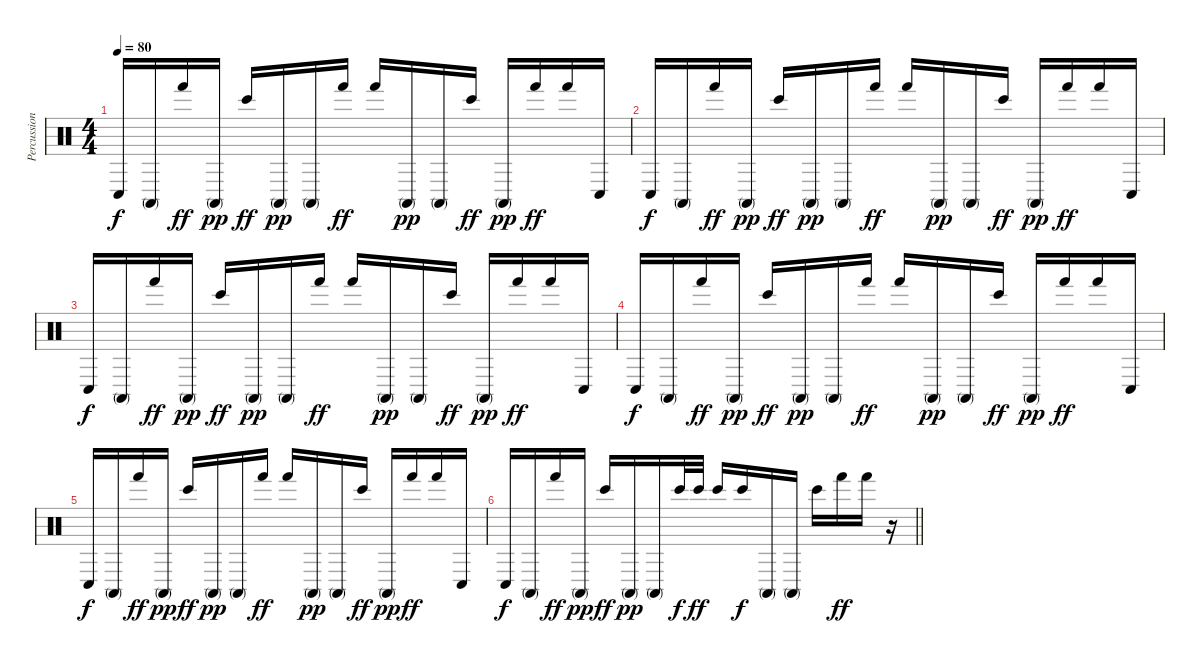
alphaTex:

\track ("Percussions" "Percussion") {instrument percussion}
\staff {score}
\articulation defaults
\ts (4 4)
\tempo 80
\clef neutral
\ks c "Conga low (hit)".16{dy f} "Conga high (mute)".16 "Hand (hit)".16{dy ff} "Conga high (mute)".16{dy pp} "Bongo High (hit)".16{dy ff} "Conga high (mute)".16{dy pp} "Conga high (mute)".16 "Hand (hit)".16{dy ff} "Hand (hit)".16 "Conga high (mute)".16{dy pp} "Conga high (mute)".16 "Bongo High (hit)".16{dy ff} "Conga high (mute)".16{dy pp} "Hand (hit)".16{dy ff} "Hand (hit)".16 "Conga low (hit)".16
|
"Conga low (hit)".16{dy f} "Conga high (mute)".16 "Hand (hit)".16{dy ff} "Conga high (mute)".16{dy pp} "Bongo High (hit)".16{dy ff} "Conga high (mute)".16{dy pp} "Conga high (mute)".16 "Hand (hit)".16{dy ff} "Hand (hit)".16 "Conga high (mute)".16{dy pp} "Conga high (mute)".16 "Bongo High (hit)".16{dy ff} "Conga high (mute)".16{dy pp} "Hand (hit)".16{dy ff} "Hand (hit)".16 "Conga low (hit)".16 |
"Conga low (hit)".16{dy f} "Conga high (mute)".16 "Hand (hit)".16{dy ff} "Conga high (mute)".16{dy pp} "Bongo High (hit)".16{dy ff} "Conga high (mute)".16{dy pp} "Conga high (mute)".16 "Hand (hit)".16{dy ff} "Hand (hit)".16 "Conga high (mute)".16{dy pp} "Conga high (mute)".16 "Bongo High (hit)".16{dy ff} "Conga high (mute)".16{dy pp} "Hand (hit)".16{dy ff} "Hand (hit)".16 "Conga low (hit)".16 |
"Conga low (hit)".16{dy f} "Conga high (mute)".16 "Hand (hit)".16{dy ff} "Conga high (mute)".16{dy pp} "Bongo High (hit)".16{dy ff} "Conga high (mute)".16{dy pp} "Conga high (mute)".16 "Hand (hit)".16{dy ff} "Hand (hit)".16 "Conga high (mute)".16{dy pp} "Conga high (mute)".16 "Bongo High (hit)".16{dy ff} "Conga high (mute)".16{dy pp} "Hand (hit)".16{dy ff} "Hand (hit)".16 "Conga low (hit)".16 |
"Conga low (hit)".16{dy f} "Conga high (mute)".16 "Hand (hit)".16{dy ff} "Conga high (mute)".16{dy pp} "Bongo High (hit)".16{dy ff} "Conga high (mute)".16{dy pp} "Conga high (mute)".16 "Hand (hit)".16{dy ff} "Hand (hit)".16 "Conga high (mute)".16{dy pp} "Conga high (mute)".16 "Bongo High (hit)".16{dy ff} "Conga high (mute)".16{dy pp} "Hand (hit)".16{dy ff} "Hand (hit)".16 "Conga low (hit)".16 |
\barLineRight lightlight "Conga low (hit)".16{dy f} "Conga high (mute)".16 "Hand (hit)".16{dy ff} "Conga high (mute)".16{dy pp} "Bongo High (hit)".16{dy ff} "Conga high (mute)".16{dy pp} "Conga high (mute)".16 "Bongo High (hit)".32{dy f} "Bongo High (hit)".32{dy ff} "Bongo High (hit)".16 "Bongo High (hit)".16{dy f} "Conga high (mute)".16 "Conga high (mute)".16 "Bongo High (hit)".16 "Hand (hit)".16{dy ff} "Hand (hit)".16
r.16
